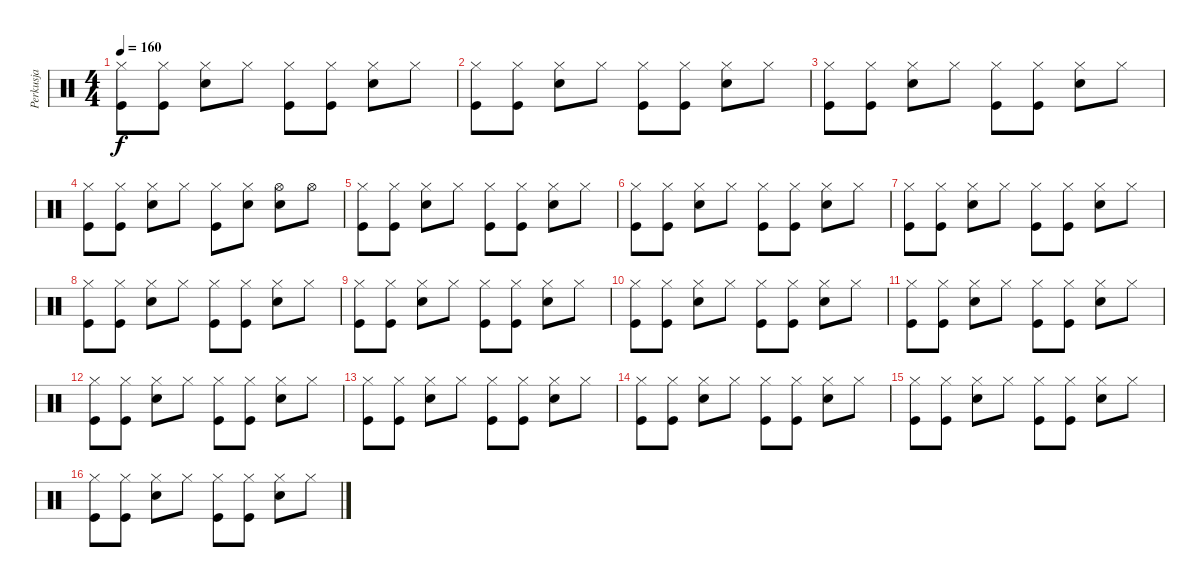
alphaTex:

\track ("Perkusja" "Perkusja") {instrument percussion}
\staff {score}
\articulation defaults
\ts (4 4)
\tempo 160
\clef neutral
\ks c
("Hi-Hat (closed)" "Kick (hit)").8{dy f} ("Hi-Hat (closed)" "Kick (hit)").8 ("Hi-Hat (closed)" "Electric Snare (hit)").8 "Hi-Hat (closed)".8 ("Hi-Hat (closed)" "Kick (hit)").8 ("Hi-Hat (closed)" "Kick (hit)").8 ("Hi-Hat (closed)" "Electric Snare (hit)").8 "Hi-Hat (closed)".8 |
("Hi-Hat (closed)" "Kick (hit)").8 ("Hi-Hat (closed)" "Kick (hit)").8 ("Hi-Hat (closed)" "Electric Snare (hit)").8 "Hi-Hat (closed)".8 ("Hi-Hat (closed)" "Kick (hit)").8 ("Hi-Hat (closed)" "Kick (hit)").8 ("Hi-Hat (closed)" "Electric Snare (hit)").8 "Hi-Hat (closed)".8 |
("Hi-Hat (closed)" "Kick (hit)").8 ("Hi-Hat (closed)" "Kick (hit)").8 ("Hi-Hat (closed)" "Electric Snare (hit)").8 "Hi-Hat (closed)".8 ("Hi-Hat (closed)" "Kick (hit)").8 ("Hi-Hat (closed)" "Kick (hit)").8 ("Hi-Hat (closed)" "Electric Snare (hit)").8 "Hi-Hat (closed)".8 |
("Hi-Hat (closed)" "Kick (hit)").8 ("Hi-Hat (closed)" "Kick (hit)").8 ("Hi-Hat (closed)" "Electric Snare (hit)").8 "Hi-Hat (closed)".8 ("Hi-Hat (closed)" "Kick (hit)").8 ("Hi-Hat (closed)" "Electric Snare (hit)").8 ("Hi-Hat (open)" "Electric Snare (hit)").8 "Hi-Hat (open)".8 |
("Hi-Hat (closed)" "Kick (hit)").8 ("Hi-Hat (closed)" "Kick (hit)").8 ("Hi-Hat (closed)" "Electric Snare (hit)").8 "Hi-Hat (closed)".8 ("Hi-Hat (closed)" "Kick (hit)").8 ("Hi-Hat (closed)" "Kick (hit)").8 ("Hi-Hat (closed)" "Electric Snare (hit)").8 "Hi-Hat (closed)".8 |
("Hi-Hat (closed)" "Kick (hit)").8 ("Hi-Hat (closed)" "Kick (hit)").8 ("Hi-Hat (closed)" "Electric Snare (hit)").8 "Hi-Hat (closed)".8 ("Hi-Hat (closed)" "Kick (hit)").8 ("Hi-Hat (closed)" "Kick (hit)").8 ("Hi-Hat (closed)" "Electric Snare (hit)").8 "Hi-Hat (closed)".8 |
("Hi-Hat (closed)" "Kick (hit)").8 ("Hi-Hat (closed)" "Kick (hit)").8 ("Hi-Hat (closed)" "Electric Snare (hit)").8 "Hi-Hat (closed)".8 ("Hi-Hat (closed)" "Kick (hit)").8 ("Hi-Hat (closed)" "Kick (hit)").8 ("Hi-Hat (closed)" "Electric Snare (hit)").8 "Hi-Hat (closed)".8 |
("Hi-Hat (closed)" "Kick (hit)").8 ("Hi-Hat (closed)" "Kick (hit)").8 ("Hi-Hat (closed)" "Electric Snare (hit)").8 "Hi-Hat (closed)".8 ("Hi-Hat (closed)" "Kick (hit)").8 ("Hi-Hat (closed)" "Kick (hit)").8 ("Hi-Hat (closed)" "Electric Snare (hit)").8 "Hi-Hat (closed)".8 |
("Hi-Hat (closed)" "Kick (hit)").8 ("Hi-Hat (closed)" "Kick (hit)").8 ("Hi-Hat (closed)" "Electric Snare (hit)").8 "Hi-Hat (closed)".8 ("Hi-Hat (closed)" "Kick (hit)").8 ("Hi-Hat (closed)" "Kick (hit)").8 ("Hi-Hat (closed)" "Electric Snare (hit)").8 "Hi-Hat (closed)".8 |
("Hi-Hat (closed)" "Kick (hit)").8 ("Hi-Hat (closed)" "Kick (hit)").8 ("Hi-Hat (closed)" "Electric Snare (hit)").8 "Hi-Hat (closed)".8 ("Hi-Hat (closed)" "Kick (hit)").8 ("Hi-Hat (closed)" "Kick (hit)").8 ("Hi-Hat (closed)" "Electric Snare (hit)").8 "Hi-Hat (closed)".8 |
("Hi-Hat (closed)" "Kick (hit)").8 ("Hi-Hat (closed)" "Kick (hit)").8 ("Hi-Hat (closed)" "Electric Snare (hit)").8 "Hi-Hat (closed)".8 ("Hi-Hat (closed)" "Kick (hit)").8 ("Hi-Hat (closed)" "Kick (hit)").8 ("Hi-Hat (closed)" "Electric Snare (hit)").8 "Hi-Hat (closed)".8 |
("Hi-Hat (closed)" "Kick (hit)").8 ("Hi-Hat (closed)" "Kick (hit)").8 ("Hi-Hat (closed)" "Electric Snare (hit)").8 "Hi-Hat (closed)".8 ("Hi-Hat (closed)" "Kick (hit)").8 ("Hi-Hat (closed)" "Kick (hit)").8 ("Hi-Hat (closed)" "Electric Snare (hit)").8 "Hi-Hat (closed)".8 |
("Hi-Hat (closed)" "Kick (hit)").8 ("Hi-Hat (closed)" "Kick (hit)").8 ("Hi-Hat (closed)" "Electric Snare (hit)").8 "Hi-Hat (closed)".8 ("Hi-Hat (closed)" "Kick (hit)").8 ("Hi-Hat (closed)" "Kick (hit)").8 ("Hi-Hat (closed)" "Electric Snare (hit)").8 "Hi-Hat (closed)".8 |
("Hi-Hat (closed)" "Kick (hit)").8 ("Hi-Hat (closed)" "Kick (hit)").8 ("Hi-Hat (closed)" "Electric Snare (hit)").8 "Hi-Hat (closed)".8 ("Hi-Hat (closed)" "Kick (hit)").8 ("Hi-Hat (closed)" "Kick (hit)").8 ("Hi-Hat (closed)" "Electric Snare (hit)").8 "Hi-Hat (closed)".8 |
("Hi-Hat (closed)" "Kick (hit)").8 ("Hi-Hat (closed)" "Kick (hit)").8 ("Hi-Hat (closed)" "Electric Snare (hit)").8 "Hi-Hat (closed)".8 ("Hi-Hat (closed)" "Kick (hit)").8 ("Hi-Hat (closed)" "Kick (hit)").8 ("Hi-Hat (closed)" "Electric Snare (hit)").8 "Hi-Hat (closed)".8 |
("Hi-Hat (closed)" "Kick (hit)").8 ("Hi-Hat (closed)" "Kick (hit)").8 ("Hi-Hat (closed)" "Electric Snare (hit)").8 "Hi-Hat (closed)".8 ("Hi-Hat (closed)" "Kick (hit)").8 ("Hi-Hat (closed)" "Kick (hit)").8 ("Hi-Hat (closed)" "Electric Snare (hit)").8 "Hi-Hat (closed)".8
